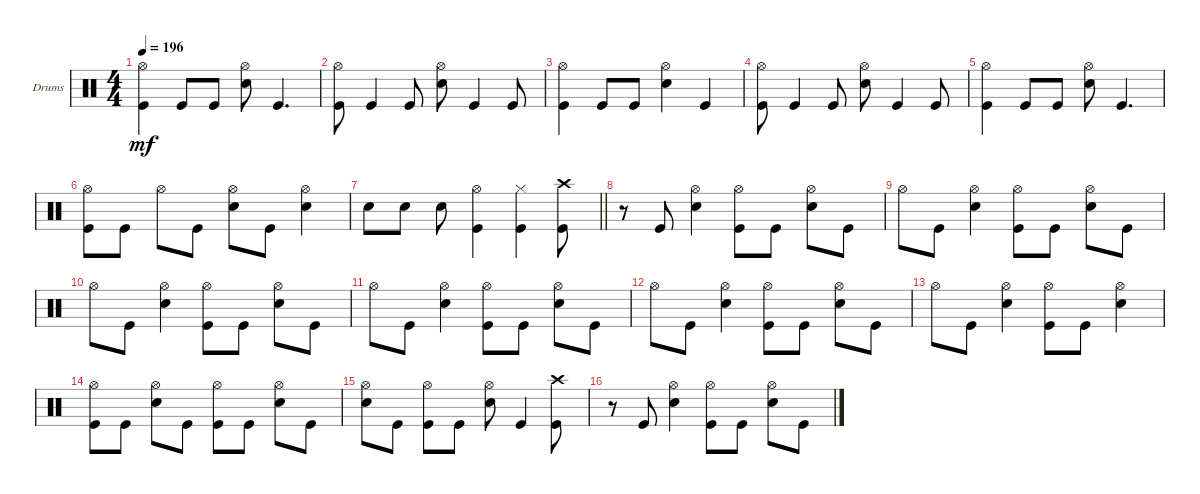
\defaultSystemsLayout 4
\bracketExtendMode groupsimilarinstruments
\firstSystemTrackNameOrientation horizontal
\otherSystemsTrackNameOrientation horizontal
\track ("Drumkit" "Drums") {instrument percussion}
\staff {score}
\articulation defaults
\ts (4 4)
\tempo 196
\clef neutral
\scale
0.333333
\ks c
("Kick (hit)" "Hi-Hat (open)").4{dy mf} "Kick (hit)".8 "Kick (hit)".8 ("Snare (hit) 2" "Hi-Hat (open)").8 "Kick (hit)".4{d} |
\scale
0.333333 ("Kick (hit)" "Hi-Hat (open)").8 "Kick (hit)".4 "Kick (hit)".8 ("Snare (hit) 2" "Hi-Hat (open)").8 "Kick (hit)".4 "Kick (hit)".8 |
\scale
0.333333 ("Kick (hit)" "Hi-Hat (open)").4 "Kick (hit)".8 "Kick (hit)".8 ("Snare (hit) 2" "Hi-Hat (open)").4 "Kick (hit)".4 |
\scale
0.333333 ("Kick (hit)" "Hi-Hat (open)").8 "Kick (hit)".4 "Kick (hit)".8 ("Snare (hit) 2" "Hi-Hat (open)").8 "Kick (hit)".4 "Kick (hit)".8 |
\scale
0.333333 ("Kick (hit)" "Hi-Hat (open)").4 "Kick (hit)".8 "Kick (hit)".8 ("Snare (hit) 2" "Hi-Hat (open)").8 "Kick (hit)".4{d} |
\scale
0.333333 ("Kick (hit)" "Hi-Hat (open)").8 "Kick (hit)".8 "Hi-Hat (open)".8 "Kick (hit)".8 ("Snare (hit) 2" "Hi-Hat (open)").8 "Kick (hit)".8 ("Snare (hit) 2" "Hi-Hat (open)").4 |
\scale
0.333333
\barLineRight lightlight "Snare (hit) 2".8 "Snare (hit) 2".8 "Snare (hit) 2".8
("Kick (hit)" "Hi-Hat (open)").4 ("Kick (hit)" "Hi-Hat (closed)").4 ("Kick (hit)" "Crash high (hit)").8 |
\scale
0.333333 r.8 "Kick (hit)".8 ("Snare (hit) 2" "Hi-Hat (open)").4 ("Kick (hit)" "Hi-Hat (open)").8 "Kick (hit)".8 ("Snare (hit) 2" "Hi-Hat (open)").8 "Kick (hit)".8 |
\scale
0.333333 "Hi-Hat (open)".8 "Kick (hit)".8 ("Snare (hit) 2" "Hi-Hat (open)").4 ("Kick (hit)" "Hi-Hat (open)").8 "Kick (hit)".8 ("Snare (hit) 2" "Hi-Hat (open)").8 "Kick (hit)".8 |
\scale
0.333333 "Hi-Hat (open)".8 "Kick (hit)".8 ("Snare (hit) 2" "Hi-Hat (open)").4 ("Kick (hit)" "Hi-Hat (open)").8 "Kick (hit)".8 ("Snare (hit) 2" "Hi-Hat (open)").8 "Kick (hit)".8 |
\scale
0.333333 "Hi-Hat (open)".8 "Kick (hit)".8 ("Snare (hit) 2" "Hi-Hat (open)").4 ("Kick (hit)" "Hi-Hat (open)").8 "Kick (hit)".8 ("Snare (hit) 2" "Hi-Hat (open)").8 "Kick (hit)".8 |
\scale
0.333333 "Hi-Hat (open)".8 "Kick (hit)".8 ("Snare (hit) 2" "Hi-Hat (open)").4 ("Kick (hit)" "Hi-Hat (open)").8 "Kick (hit)".8 ("Snare (hit) 2" "Hi-Hat (open)").8 "Kick (hit)".8 |
\scale
0.333333 "Hi-Hat (open)".8 "Kick (hit)".8 ("Snare (hit) 2" "Hi-Hat (open)").4 ("Kick (hit)" "Hi-Hat (open)").8 "Kick (hit)".8 ("Snare (hit) 2" "Hi-Hat (open)").4 |
\scale
0.333333 ("Kick (hit)" "Hi-Hat (open)").8 "Kick (hit)".8 ("Snare (hit) 2" "Hi-Hat (open)").8 "Kick (hit)".8 ("Kick (hit)" "Hi-Hat (open)").8 "Kick (hit)".8 ("Snare (hit) 2" "Hi-Hat (open)").8 "Kick (hit)".8 |
\scale
0.333333 ("Snare (hit) 2" "Hi-Hat (open)").8 "Kick (hit)".8 ("Kick (hit)" "Hi-Hat (open)").8 "Kick (hit)".8 ("Snare (hit) 2" "Hi-Hat (open)").8 "Kick (hit)".4 ("Kick (hit)" "Crash high (hit)").8 |
\scale
0.333333 r.8 "Kick (hit)".8 ("Snare (hit) 2" "Hi-Hat (open)").4 ("Kick (hit)" "Hi-Hat (open)").8 "Kick (hit)".8 ("Snare (hit) 2" "Hi-Hat (open)").8 "Kick (hit)".8
